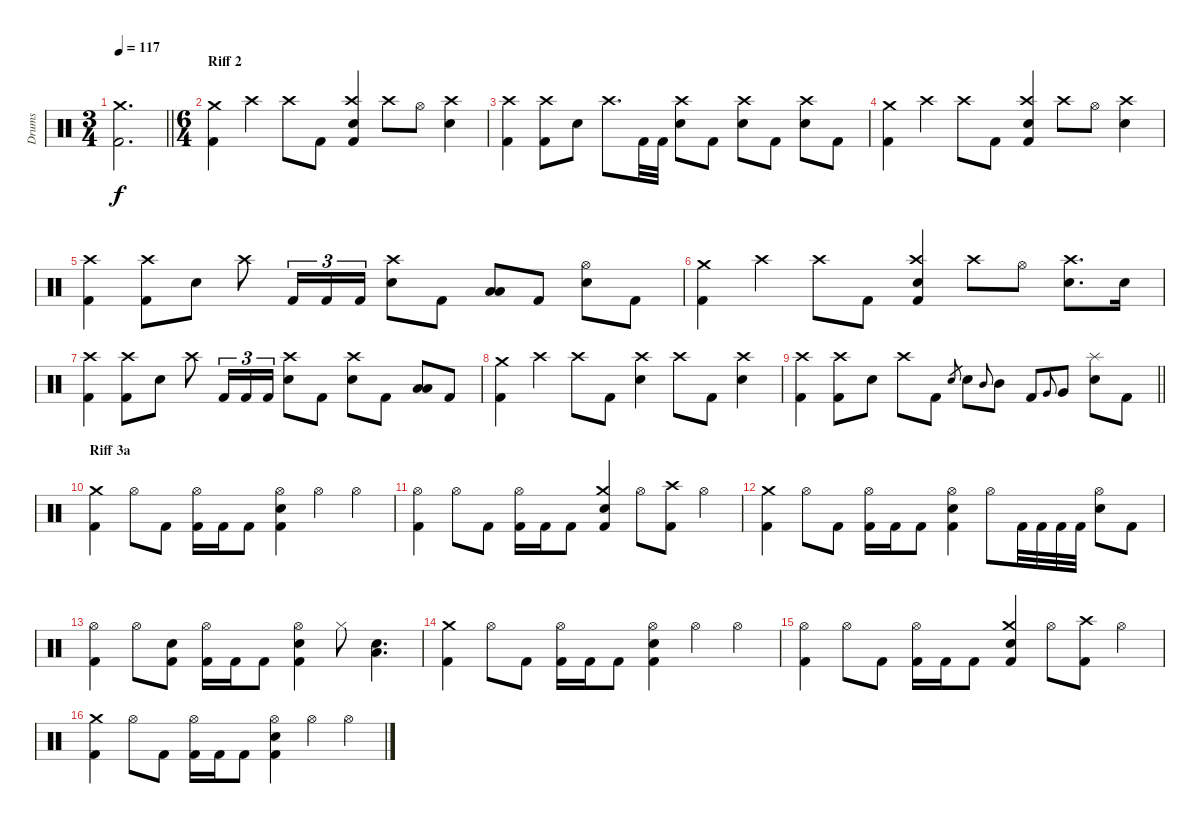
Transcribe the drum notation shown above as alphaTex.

\track ("Drums" "Drums") {instrument percussion}
\staff {score}
\articulation defaults
\ts (3 4)
\tempo 117
\clef neutral
\barLineRight lightlight
\ks c
("Kick (hit) 2" "Crash medium (hit)").2{d dy f} |
\ts (6 4)
\section ("" "Riff 2")
("Kick (hit) 2" "Crash medium (hit)").4 "Crash high (hit)".4 "Crash high (hit)".8 "Kick (hit) 2".8 ("Crash high (hit)" "Kick (hit) 2" "Electric Snare (hit)").4 "Crash high (hit)".8 "Hi-Hat (open)".8 ("Electric Snare (hit)" "Crash high (hit)").4 |
("Kick (hit) 2" "Crash high (hit)").4 ("Kick (hit) 2" "Crash high (hit)").8 "Electric Snare (hit)".8 "Crash high (hit)".8{d} "Kick (hit) 2".32 "Kick (hit) 2".32 ("Electric Snare (hit)" "Crash high (hit)").8 "Kick (hit) 2".8 ("Electric Snare (hit)" "Crash high (hit)").8 "Kick (hit) 2".8 ("Electric Snare (hit)" "Crash high (hit)").8 "Kick (hit) 2".8 |
("Kick (hit) 2" "Crash medium (hit)").4 "Crash high (hit)".4 "Crash high (hit)".8 "Kick (hit) 2".8 ("Crash high (hit)" "Kick (hit) 2" "Electric Snare (hit)").4 "Crash high (hit)".8 "Hi-Hat (open)".8 ("Electric Snare (hit)" "Crash high (hit)").4 |
("Kick (hit) 2" "Crash high (hit)").4 ("Kick (hit) 2" "Crash high (hit)").8 "Electric Snare (hit)".8 "Crash high (hit)".8 "Kick (hit) 2".16{tu (3 2)} "Kick (hit) 2".16{tu (3 2)} "Kick (hit) 2".16{tu (3 2)} ("Electric Snare (hit)" "Crash high (hit)").8 "Kick (hit) 2".8 ("Low Tom (hit)" "Low Floor Tom (hit)").8 "Kick (hit) 2".8 ("Electric Snare (hit)" "Hi-Hat (open)").8 "Kick (hit) 2".8 |
("Kick (hit) 2" "Crash medium (hit)").4 "Crash high (hit)".4 "Crash high (hit)".8 "Kick (hit) 2".8 ("Crash high (hit)" "Kick (hit) 2" "Electric Snare (hit)").4 "Crash high (hit)".8 "Hi-Hat (open)".8 ("Electric Snare (hit)" "Crash high (hit)").8{d} "Electric Snare (hit)".16 |
("Kick (hit) 2" "Crash high (hit)").4 ("Kick (hit) 2" "Crash high (hit)").8 "Electric Snare (hit)".8 "Crash high (hit)".8 "Kick (hit) 2".16{tu (3 2)} "Kick (hit) 2".16{tu (3 2)} "Kick (hit) 2".16{tu (3 2)} ("Electric Snare (hit)" "Crash high (hit)").8 "Kick (hit) 2".8 ("Electric Snare (hit)" "Crash high (hit)").8 "Kick (hit) 2".8 ("Low Tom (hit)" "Low Floor Tom (hit)").8 "Kick (hit) 2".8 |
("Kick (hit) 2" "Crash medium (hit)").4 "Crash high (hit)".4 "Crash high (hit)".8 "Kick (hit) 2".8 ("Crash high (hit)" "Electric Snare (hit)").4 "Crash high (hit)".8 "Kick (hit) 2".8 ("Electric Snare (hit)" "Crash high (hit)").4 |
\barLineRight lightlight
("Kick (hit) 2" "Crash high (hit)").4 ("Kick (hit) 2" "Crash high (hit)").8 "Electric Snare (hit)".8 "Crash high (hit)".8 "Kick (hit) 2".8 "Electric Snare (hit)".8{gr} "Electric Snare (hit)".8 "Mid Tom (hit)".8{gr onbeat} "Mid Tom (hit)".8 "Kick (hit) 2".8 "Very Low Tom (hit)".8{gr onbeat} "Very Low Tom (hit)".8 ("Electric Snare (hit)" "Splash (hit)").8 "Kick (hit) 2".8 |
\section ("" "Riff 3a")
("Kick (hit) 2" "Crash medium (hit)").4 "Hi-Hat (open)".8 "Kick (hit) 2".8 ("Hi-Hat (open)" "Kick (hit) 2").16 "Kick (hit) 2".16 "Kick (hit) 2".8 ("Electric Snare (hit)" "Kick (hit) 2" "Hi-Hat (open)").4 "Hi-Hat (open)".4 "Hi-Hat (open)".4 |
("Kick (hit) 2" "Hi-Hat (open)").4 "Hi-Hat (open)".8 "Kick (hit) 2".8 ("Hi-Hat (open)" "Kick (hit) 2").16 "Kick (hit) 2".16 "Kick (hit) 2".8 ("Crash medium (hit)" "Kick (hit) 2" "Electric Snare (hit)").4 "Hi-Hat (open)".8 ("Kick (hit) 2" "Crash high (hit)").8 "Hi-Hat (open)".4 |
("Kick (hit) 2" "Crash medium (hit)").4 "Hi-Hat (open)".8 "Kick (hit) 2".8 ("Hi-Hat (open)" "Kick (hit) 2").16 "Kick (hit) 2".16 "Kick (hit) 2".8 ("Electric Snare (hit)" "Kick (hit) 2" "Hi-Hat (open)").4 "Hi-Hat (open)".8 "Kick (hit) 2".32 "Kick (hit) 2".32 "Kick (hit) 2".32 "Kick (hit) 2".32 ("Electric Snare (hit)" "Hi-Hat (open)").8 "Kick (hit) 2".8 |
("Kick (hit) 2" "Hi-Hat (open)").4 "Hi-Hat (open)".8 ("Electric Snare (hit)" "Kick (hit) 2").8 ("Hi-Hat (open)" "Kick (hit) 2").16 "Kick (hit) 2".16 "Kick (hit) 2".8 ("Hi-Hat (open)" "Kick (hit) 2" "Electric Snare (hit)").4 "Hi-Hat (closed)".8 ("Electric Snare (hit)" "Low Floor Tom (hit)").4{d} |
("Kick (hit) 2" "Crash medium (hit)").4 "Hi-Hat (open)".8 "Kick (hit) 2".8 ("Hi-Hat (open)" "Kick (hit) 2").16 "Kick (hit) 2".16 "Kick (hit) 2".8 ("Electric Snare (hit)" "Kick (hit) 2" "Hi-Hat (open)").4 "Hi-Hat (open)".4 "Hi-Hat (open)".4 |
("Kick (hit) 2" "Hi-Hat (open)").4 "Hi-Hat (open)".8 "Kick (hit) 2".8 ("Hi-Hat (open)" "Kick (hit) 2").16 "Kick (hit) 2".16 "Kick (hit) 2".8 ("Crash medium (hit)" "Kick (hit) 2" "Electric Snare (hit)").4 "Hi-Hat (open)".8 ("Kick (hit) 2" "Crash high (hit)").8 "Hi-Hat (open)".4 |
("Kick (hit) 2" "Crash medium (hit)").4 "Hi-Hat (open)".8 "Kick (hit) 2".8 ("Hi-Hat (open)" "Kick (hit) 2").16 "Kick (hit) 2".16 "Kick (hit) 2".8 ("Electric Snare (hit)" "Kick (hit) 2" "Hi-Hat (open)").4 "Hi-Hat (open)".4 "Hi-Hat (open)".4
